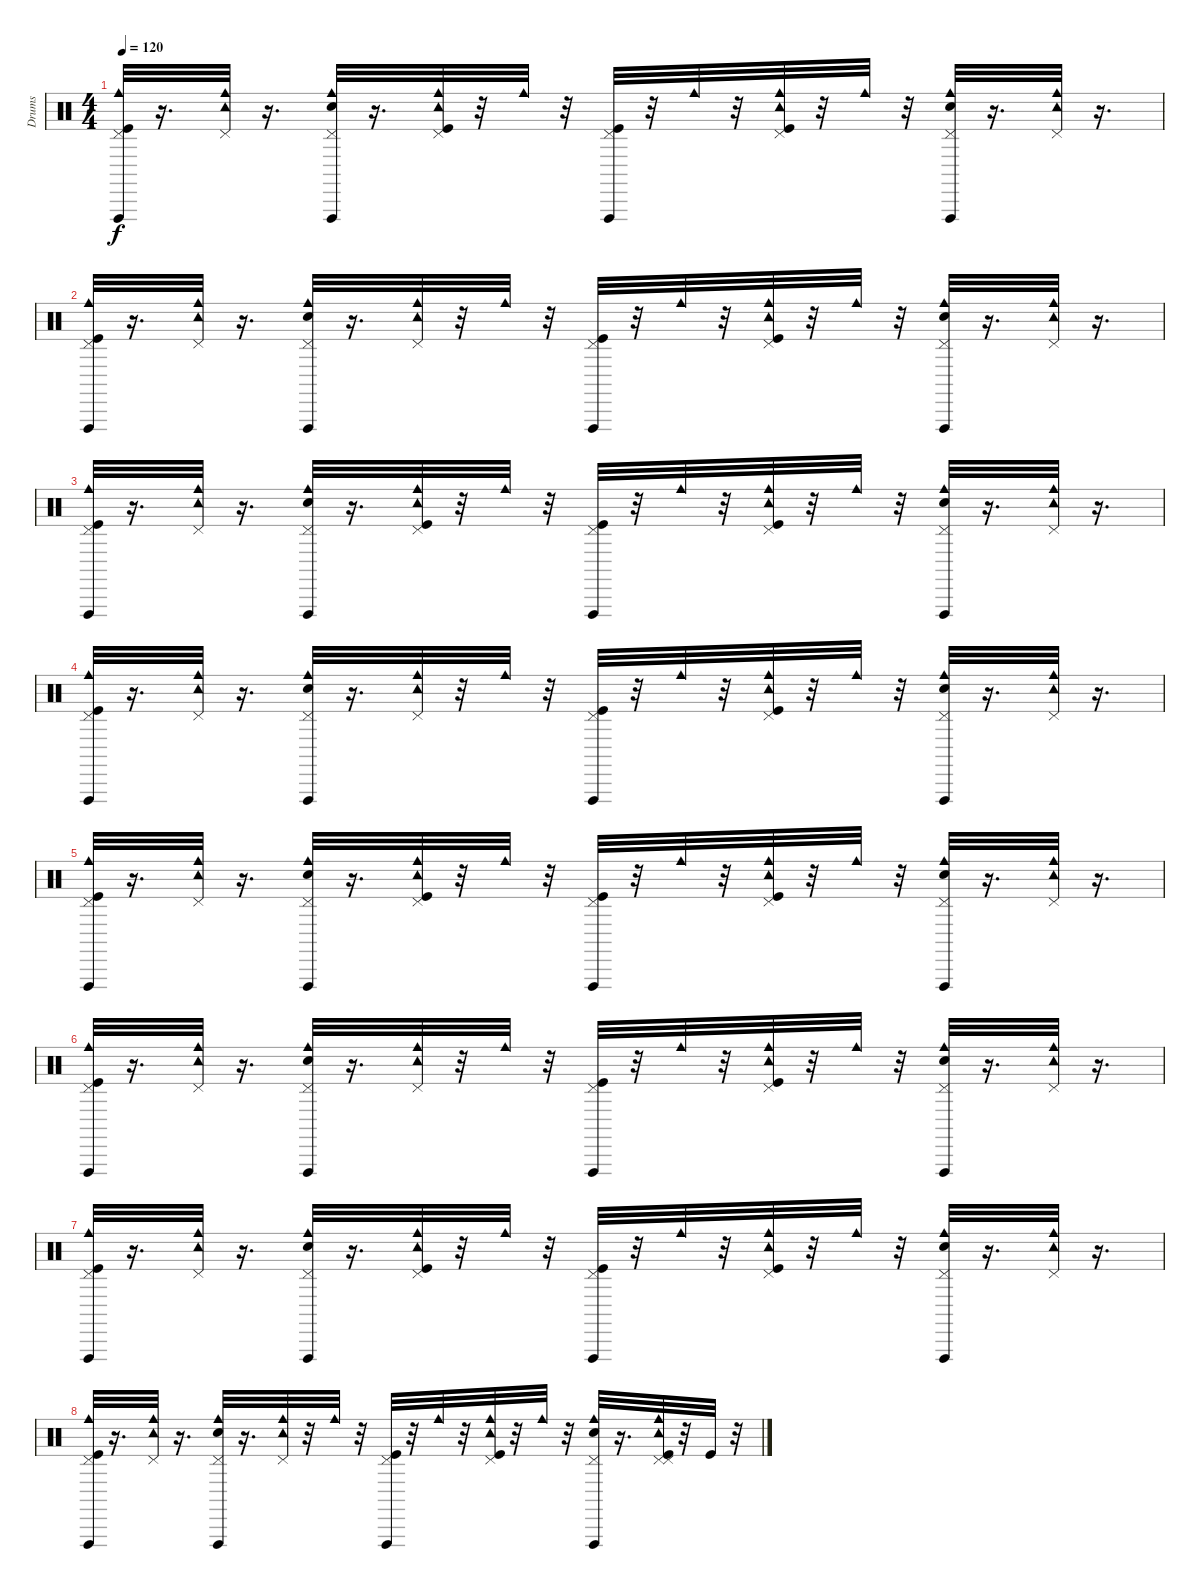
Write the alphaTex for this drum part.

\track ("Drums" "Drums") {instrument percussion}
\staff {score}
\articulation defaults
\ts (4 4)
\tempo 120
\clef neutral
\ks c
("Kick (hit)" "Pedal Hi-Hat (hit)" "Vibraslap (hit)" "Cowbell medium (hit)").32{dy f} r.16{d} ("Cowbell medium (hit)" "Pedal Hi-Hat (hit)" "Tambourine (hit)").32 r.16{d} ("Snare (hit) 2" "Pedal Hi-Hat (hit)" "Cowbell medium (hit)" "Vibraslap (hit)").32 r.16{d} ("Kick (hit)" "Cowbell medium (hit)" "Pedal Hi-Hat (hit)" "Tambourine (hit)").32 r.32 "Cowbell medium (hit)".32 r.32 ("Kick (hit)" "Vibraslap (hit)" "Pedal Hi-Hat (hit)").32 r.32 "Cowbell medium (hit)".32 r.32 ("Kick (hit)" "Pedal Hi-Hat (hit)" "Tambourine (hit)" "Cowbell medium (hit)").32 r.32 "Cowbell medium (hit)".32 r.32 ("Snare (hit) 2" "Pedal Hi-Hat (hit)" "Cowbell medium (hit)" "Vibraslap (hit)").32 r.16{d} ("Pedal Hi-Hat (hit)" "Cowbell medium (hit)" "Tambourine (hit)").32 r.16{d} |
("Kick (hit)" "Vibraslap (hit)" "Cowbell medium (hit)" "Pedal Hi-Hat (hit)").32 r.16{d} ("Tambourine (hit)" "Pedal Hi-Hat (hit)" "Cowbell medium (hit)").32 r.16{d} ("Snare (hit) 2" "Pedal Hi-Hat (hit)" "Vibraslap (hit)" "Cowbell medium (hit)").32 r.16{d} ("Pedal Hi-Hat (hit)" "Tambourine (hit)" "Cowbell medium (hit)").32 r.32 "Cowbell medium (hit)".32 r.32 ("Kick (hit)" "Pedal Hi-Hat (hit)" "Vibraslap (hit)").32 r.32 "Cowbell medium (hit)".32 r.32 ("Kick (hit)" "Cowbell medium (hit)" "Tambourine (hit)" "Pedal Hi-Hat (hit)").32 r.32 "Cowbell medium (hit)".32 r.32 ("Snare (hit) 2" "Vibraslap (hit)" "Cowbell medium (hit)" "Pedal Hi-Hat (hit)").32 r.16{d} ("Pedal Hi-Hat (hit)" "Tambourine (hit)" "Cowbell medium (hit)").32 r.16{d} |
("Kick (hit)" "Pedal Hi-Hat (hit)" "Vibraslap (hit)" "Cowbell medium (hit)").32 r.16{d} ("Cowbell medium (hit)" "Pedal Hi-Hat (hit)" "Tambourine (hit)").32 r.16{d} ("Snare (hit) 2" "Pedal Hi-Hat (hit)" "Cowbell medium (hit)" "Vibraslap (hit)").32 r.16{d} ("Kick (hit)" "Cowbell medium (hit)" "Pedal Hi-Hat (hit)" "Tambourine (hit)").32 r.32 "Cowbell medium (hit)".32 r.32 ("Kick (hit)" "Vibraslap (hit)" "Pedal Hi-Hat (hit)").32 r.32 "Cowbell medium (hit)".32 r.32 ("Kick (hit)" "Pedal Hi-Hat (hit)" "Tambourine (hit)" "Cowbell medium (hit)").32 r.32 "Cowbell medium (hit)".32 r.32 ("Snare (hit) 2" "Pedal Hi-Hat (hit)" "Cowbell medium (hit)" "Vibraslap (hit)").32 r.16{d} ("Pedal Hi-Hat (hit)" "Cowbell medium (hit)" "Tambourine (hit)").32 r.16{d} |
("Kick (hit)" "Vibraslap (hit)" "Cowbell medium (hit)" "Pedal Hi-Hat (hit)").32 r.16{d} ("Tambourine (hit)" "Pedal Hi-Hat (hit)" "Cowbell medium (hit)").32 r.16{d} ("Snare (hit) 2" "Pedal Hi-Hat (hit)" "Vibraslap (hit)" "Cowbell medium (hit)").32 r.16{d} ("Pedal Hi-Hat (hit)" "Tambourine (hit)" "Cowbell medium (hit)").32 r.32 "Cowbell medium (hit)".32 r.32 ("Kick (hit)" "Pedal Hi-Hat (hit)" "Vibraslap (hit)").32 r.32 "Cowbell medium (hit)".32 r.32 ("Kick (hit)" "Cowbell medium (hit)" "Tambourine (hit)" "Pedal Hi-Hat (hit)").32 r.32 "Cowbell medium (hit)".32 r.32 ("Snare (hit) 2" "Vibraslap (hit)" "Cowbell medium (hit)" "Pedal Hi-Hat (hit)").32 r.16{d} ("Pedal Hi-Hat (hit)" "Tambourine (hit)" "Cowbell medium (hit)").32 r.16{d} |
("Kick (hit)" "Pedal Hi-Hat (hit)" "Vibraslap (hit)" "Cowbell medium (hit)").32 r.16{d} ("Cowbell medium (hit)" "Pedal Hi-Hat (hit)" "Tambourine (hit)").32 r.16{d} ("Snare (hit) 2" "Pedal Hi-Hat (hit)" "Cowbell medium (hit)" "Vibraslap (hit)").32 r.16{d} ("Kick (hit)" "Cowbell medium (hit)" "Pedal Hi-Hat (hit)" "Tambourine (hit)").32 r.32 "Cowbell medium (hit)".32 r.32 ("Kick (hit)" "Vibraslap (hit)" "Pedal Hi-Hat (hit)").32 r.32 "Cowbell medium (hit)".32 r.32 ("Kick (hit)" "Pedal Hi-Hat (hit)" "Tambourine (hit)" "Cowbell medium (hit)").32 r.32 "Cowbell medium (hit)".32 r.32 ("Snare (hit) 2" "Pedal Hi-Hat (hit)" "Cowbell medium (hit)" "Vibraslap (hit)").32 r.16{d} ("Pedal Hi-Hat (hit)" "Cowbell medium (hit)" "Tambourine (hit)").32 r.16{d} |
("Kick (hit)" "Vibraslap (hit)" "Cowbell medium (hit)" "Pedal Hi-Hat (hit)").32 r.16{d} ("Tambourine (hit)" "Pedal Hi-Hat (hit)" "Cowbell medium (hit)").32 r.16{d} ("Snare (hit) 2" "Pedal Hi-Hat (hit)" "Vibraslap (hit)" "Cowbell medium (hit)").32 r.16{d} ("Pedal Hi-Hat (hit)" "Tambourine (hit)" "Cowbell medium (hit)").32 r.32 "Cowbell medium (hit)".32 r.32 ("Kick (hit)" "Pedal Hi-Hat (hit)" "Vibraslap (hit)").32 r.32 "Cowbell medium (hit)".32 r.32 ("Kick (hit)" "Cowbell medium (hit)" "Tambourine (hit)" "Pedal Hi-Hat (hit)").32 r.32 "Cowbell medium (hit)".32 r.32 ("Snare (hit) 2" "Vibraslap (hit)" "Cowbell medium (hit)" "Pedal Hi-Hat (hit)").32 r.16{d} ("Pedal Hi-Hat (hit)" "Tambourine (hit)" "Cowbell medium (hit)").32 r.16{d} |
("Kick (hit)" "Pedal Hi-Hat (hit)" "Vibraslap (hit)" "Cowbell medium (hit)").32 r.16{d} ("Cowbell medium (hit)" "Pedal Hi-Hat (hit)" "Tambourine (hit)").32 r.16{d} ("Snare (hit) 2" "Pedal Hi-Hat (hit)" "Cowbell medium (hit)" "Vibraslap (hit)").32 r.16{d} ("Kick (hit)" "Cowbell medium (hit)" "Pedal Hi-Hat (hit)" "Tambourine (hit)").32 r.32 "Cowbell medium (hit)".32 r.32 ("Kick (hit)" "Vibraslap (hit)" "Pedal Hi-Hat (hit)").32 r.32 "Cowbell medium (hit)".32 r.32 ("Kick (hit)" "Pedal Hi-Hat (hit)" "Tambourine (hit)" "Cowbell medium (hit)").32 r.32 "Cowbell medium (hit)".32 r.32 ("Snare (hit) 2" "Pedal Hi-Hat (hit)" "Cowbell medium (hit)" "Vibraslap (hit)").32 r.16{d} ("Pedal Hi-Hat (hit)" "Cowbell medium (hit)" "Tambourine (hit)").32 r.16{d} |
("Kick (hit)" "Vibraslap (hit)" "Cowbell medium (hit)" "Pedal Hi-Hat (hit)").32 r.16{d} ("Tambourine (hit)" "Pedal Hi-Hat (hit)" "Cowbell medium (hit)").32 r.16{d} ("Snare (hit) 2" "Pedal Hi-Hat (hit)" "Vibraslap (hit)" "Cowbell medium (hit)").32 r.16{d} ("Pedal Hi-Hat (hit)" "Tambourine (hit)" "Cowbell medium (hit)").32 r.32 "Cowbell medium (hit)".32 r.32 ("Kick (hit)" "Pedal Hi-Hat (hit)" "Vibraslap (hit)").32 r.32 "Cowbell medium (hit)".32 r.32 ("Kick (hit)" "Cowbell medium (hit)" "Tambourine (hit)" "Pedal Hi-Hat (hit)").32 r.32 "Cowbell medium (hit)".32 r.32 ("Snare (hit) 2" "Vibraslap (hit)" "Cowbell medium (hit)" "Pedal Hi-Hat (hit)").32 r.16{d} ("Pedal Hi-Hat (hit)" "Pedal Hi-Hat (hit)" "Tambourine (hit)" "Cowbell medium (hit)" "Kick (hit)").32 r.32 "Kick (hit)".32 r.32
